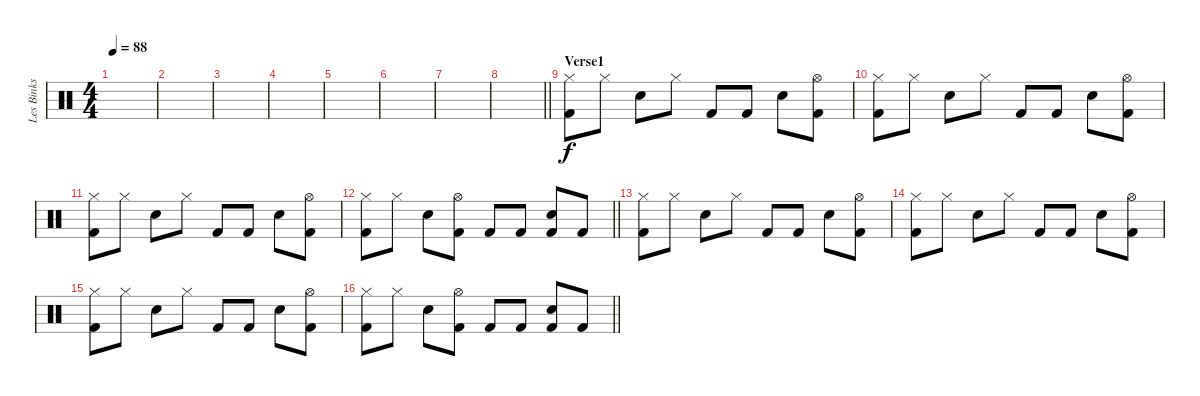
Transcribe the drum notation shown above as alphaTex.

\track ("Les Binks" "Les Binks") {instrument percussion}
\staff {score}
\articulation defaults
\ts (4 4)
\tempo 88
\clef neutral
\ks c
|
|
|
|
|
|
|
\barLineRight lightlight
|
\section ("" "Verse1")
("Hi-Hat (closed)" "Kick (hit) 2").8 "Hi-Hat (closed)".8 "Snare (hit) 2".8 "Hi-Hat (closed)".8 "Kick (hit) 2".8 "Kick (hit) 2".8 "Snare (hit) 2".8 ("Hi-Hat (open)" "Kick (hit) 2").8 |
("Hi-Hat (closed)" "Kick (hit) 2").8 "Hi-Hat (closed)".8 "Snare (hit) 2".8 "Hi-Hat (closed)".8 "Kick (hit) 2".8 "Kick (hit) 2".8 "Snare (hit) 2".8 ("Hi-Hat (open)" "Kick (hit) 2").8 |
("Hi-Hat (closed)" "Kick (hit) 2").8 "Hi-Hat (closed)".8 "Snare (hit) 2".8 "Hi-Hat (closed)".8 "Kick (hit) 2".8 "Kick (hit) 2".8 "Snare (hit) 2".8 ("Hi-Hat (open)" "Kick (hit) 2").8 |
\barLineRight lightlight
("Hi-Hat (closed)" "Kick (hit) 2").8 "Hi-Hat (closed)".8 "Snare (hit) 2".8 ("Hi-Hat (open)" "Kick (hit) 2").8 "Kick (hit) 2".8 "Kick (hit) 2".8 ("Snare (hit) 2" "Kick (hit) 2").8 "Kick (hit) 2".8 |
("Hi-Hat (closed)" "Kick (hit) 2").8 "Hi-Hat (closed)".8 "Snare (hit) 2".8 "Hi-Hat (closed)".8 "Kick (hit) 2".8 "Kick (hit) 2".8 "Snare (hit) 2".8 ("Hi-Hat (open)" "Kick (hit) 2").8 |
("Hi-Hat (closed)" "Kick (hit) 2").8 "Hi-Hat (closed)".8 "Snare (hit) 2".8 "Hi-Hat (closed)".8 "Kick (hit) 2".8 "Kick (hit) 2".8 "Snare (hit) 2".8 ("Hi-Hat (open)" "Kick (hit) 2").8 |
("Hi-Hat (closed)" "Kick (hit) 2").8 "Hi-Hat (closed)".8 "Snare (hit) 2".8 "Hi-Hat (closed)".8 "Kick (hit) 2".8 "Kick (hit) 2".8 "Snare (hit) 2".8 ("Hi-Hat (open)" "Kick (hit) 2").8 |
\barLineRight lightlight
("Hi-Hat (closed)" "Kick (hit) 2").8 "Hi-Hat (closed)".8 "Snare (hit) 2".8 ("Hi-Hat (open)" "Kick (hit) 2").8 "Kick (hit) 2".8 "Kick (hit) 2".8 ("Snare (hit) 2" "Kick (hit) 2").8 "Kick (hit) 2".8
